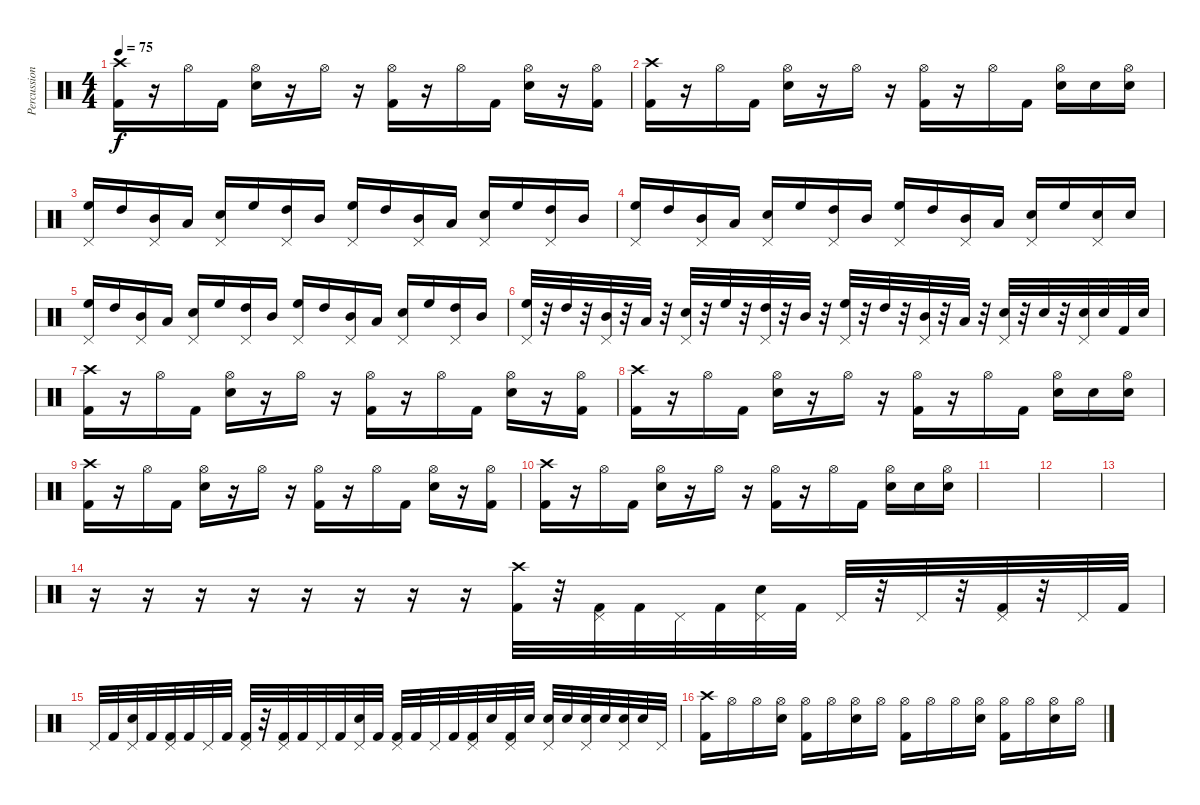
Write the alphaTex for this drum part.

\track ("Percussion" "Percussion") {instrument percussion}
\staff {score}
\articulation defaults
\ts (4 4)
\tempo 75
\clef neutral
\ks c
("Crash high (hit)" "Kick (hit) 2").16{dy f} r.16 "Hi-Hat (open)".16 "Kick (hit) 2".16 ("Hi-Hat (open)" "Snare (hit) 2").16 r.16 "Hi-Hat (open)".16 r.16 ("Hi-Hat (open)" "Kick (hit) 2").16 r.16 "Hi-Hat (open)".16 "Kick (hit) 2".16 ("Hi-Hat (open)" "Snare (hit) 2").16 r.16 ("Hi-Hat (open)" "Kick (hit) 2").16 |
("Crash high (hit)" "Kick (hit) 2").16 r.16 "Hi-Hat (open)".16 "Kick (hit) 2".16 ("Hi-Hat (open)" "Snare (hit) 2").16 r.16 "Hi-Hat (open)".16 r.16 ("Hi-Hat (open)" "Kick (hit) 2").16 r.16 "Hi-Hat (open)".16 "Kick (hit) 2".16 ("Hi-Hat (open)" "Snare (hit) 2").16 "Snare (hit) 2".16 ("Hi-Hat (open)" "Snare (hit) 2").16 |
("High Floor Tom (hit)" "Pedal Hi-Hat (hit)").16 "High Tom (hit)".16 ("Mid Tom (hit)" "Pedal Hi-Hat (hit)").16 "Low Tom (hit)".16 ("Snare (hit) 2" "Pedal Hi-Hat (hit)").16 "High Floor Tom (hit)".16 ("High Tom (hit)" "Pedal Hi-Hat (hit)").16 "Mid Tom (hit)".16 ("High Floor Tom (hit)" "Pedal Hi-Hat (hit)").16 "High Tom (hit)".16 ("Mid Tom (hit)" "Pedal Hi-Hat (hit)").16 "Low Tom (hit)".16 ("Snare (hit) 2" "Pedal Hi-Hat (hit)").16 "High Floor Tom (hit)".16 ("High Tom (hit)" "Pedal Hi-Hat (hit)").16 "Mid Tom (hit)".16 |
("High Floor Tom (hit)" "Pedal Hi-Hat (hit)").16 "High Tom (hit)".16 ("Mid Tom (hit)" "Pedal Hi-Hat (hit)").16 "Low Tom (hit)".16 ("Snare (hit) 2" "Pedal Hi-Hat (hit)").16 "High Floor Tom (hit)".16 ("High Tom (hit)" "Pedal Hi-Hat (hit)").16 "Mid Tom (hit)".16 ("High Floor Tom (hit)" "Pedal Hi-Hat (hit)").16 "High Tom (hit)".16 ("Mid Tom (hit)" "Pedal Hi-Hat (hit)").16 "Low Tom (hit)".16 ("Snare (hit) 2" "Pedal Hi-Hat (hit)").16 "High Floor Tom (hit)".16 ("Snare (hit) 2" "Pedal Hi-Hat (hit)").16 "Snare (hit) 2".16 |
("High Floor Tom (hit)" "Pedal Hi-Hat (hit)").16 "High Tom (hit)".16 ("Mid Tom (hit)" "Pedal Hi-Hat (hit)").16 "Low Tom (hit)".16 ("Snare (hit) 2" "Pedal Hi-Hat (hit)").16 "High Floor Tom (hit)".16 ("High Tom (hit)" "Pedal Hi-Hat (hit)").16 "Mid Tom (hit)".16 ("High Floor Tom (hit)" "Pedal Hi-Hat (hit)").16 "High Tom (hit)".16 ("Mid Tom (hit)" "Pedal Hi-Hat (hit)").16 "Low Tom (hit)".16 ("Snare (hit) 2" "Pedal Hi-Hat (hit)").16 "High Floor Tom (hit)".16 ("High Tom (hit)" "Pedal Hi-Hat (hit)").16 "Mid Tom (hit)".16 |
("High Floor Tom (hit)" "Pedal Hi-Hat (hit)").32 r.32 "High Tom (hit)".32 r.32 ("Mid Tom (hit)" "Pedal Hi-Hat (hit)").32 r.32 "Low Tom (hit)".32 r.32 ("Snare (hit) 2" "Pedal Hi-Hat (hit)").32 r.32 "High Floor Tom (hit)".32 r.32 ("High Tom (hit)" "Pedal Hi-Hat (hit)").32 r.32 "Mid Tom (hit)".32 r.32 ("High Floor Tom (hit)" "Pedal Hi-Hat (hit)").32 r.32 "High Tom (hit)".32 r.32 ("Mid Tom (hit)" "Pedal Hi-Hat (hit)").32 r.32 "Low Tom (hit)".32 r.32 ("Snare (hit) 2" "Pedal Hi-Hat (hit)").32 r.32 "Snare (hit) 2".32 r.32 ("Snare (hit) 2" "Pedal Hi-Hat (hit)").32 "Snare (hit) 2".32 "Kick (hit) 2".32 "Snare (hit) 2".32 |
("Crash high (hit)" "Kick (hit) 2").16 r.16 "Hi-Hat (open)".16 "Kick (hit) 2".16 ("Hi-Hat (open)" "Snare (hit) 2").16 r.16 "Hi-Hat (open)".16 r.16 ("Hi-Hat (open)" "Kick (hit) 2").16 r.16 "Hi-Hat (open)".16 "Kick (hit) 2".16 ("Hi-Hat (open)" "Snare (hit) 2").16 r.16 ("Hi-Hat (open)" "Kick (hit) 2").16 |
("Crash high (hit)" "Kick (hit) 2").16 r.16 "Hi-Hat (open)".16 "Kick (hit) 2".16 ("Hi-Hat (open)" "Snare (hit) 2").16 r.16 "Hi-Hat (open)".16 r.16 ("Hi-Hat (open)" "Kick (hit) 2").16 r.16 "Hi-Hat (open)".16 "Kick (hit) 2".16 ("Hi-Hat (open)" "Snare (hit) 2").16 "Snare (hit) 2".16 ("Hi-Hat (open)" "Snare (hit) 2").16 |
("Crash high (hit)" "Kick (hit) 2").16 r.16 "Hi-Hat (open)".16 "Kick (hit) 2".16 ("Hi-Hat (open)" "Snare (hit) 2").16 r.16 "Hi-Hat (open)".16 r.16 ("Hi-Hat (open)" "Kick (hit) 2").16 r.16 "Hi-Hat (open)".16 "Kick (hit) 2".16 ("Hi-Hat (open)" "Snare (hit) 2").16 r.16 ("Hi-Hat (open)" "Kick (hit) 2").16 |
("Crash high (hit)" "Kick (hit) 2").16 r.16 "Hi-Hat (open)".16 "Kick (hit) 2".16 ("Hi-Hat (open)" "Snare (hit) 2").16 r.16 "Hi-Hat (open)".16 r.16 ("Hi-Hat (open)" "Kick (hit) 2").16 r.16 "Hi-Hat (open)".16 "Kick (hit) 2".16 ("Hi-Hat (open)" "Snare (hit) 2").16 "Snare (hit) 2".16 ("Hi-Hat (open)" "Snare (hit) 2").16 |
|
|
|
r.16 r.16 r.16 r.16 r.16 r.16 r.16 r.16 ("Kick (hit) 2" "Crash high (hit)").32 r.32 ("Kick (hit) 2" "Pedal Hi-Hat (hit)").32 "Kick (hit) 2".32 "Pedal Hi-Hat (hit)".32 "Kick (hit) 2".32 ("Snare (hit) 2" "Pedal Hi-Hat (hit)").32 "Kick (hit) 2".32 "Pedal Hi-Hat (hit)".32 r.32 "Pedal Hi-Hat (hit)".32 r.32 ("Kick (hit) 2" "Pedal Hi-Hat (hit)").32 r.32 "Pedal Hi-Hat (hit)".32 "Kick (hit) 2".32 |
"Pedal Hi-Hat (hit)".32 "Kick (hit) 2".32 ("Snare (hit) 2" "Pedal Hi-Hat (hit)").32 "Kick (hit) 2".32 ("Kick (hit) 2" "Pedal Hi-Hat (hit)").32 "Kick (hit) 2".32 "Pedal Hi-Hat (hit)".32 "Kick (hit) 2".32 ("Kick (hit) 2" "Pedal Hi-Hat (hit)").32 r.32 ("Kick (hit) 2" "Pedal Hi-Hat (hit)").32 "Kick (hit) 2".32 "Pedal Hi-Hat (hit)".32 "Kick (hit) 2".32 ("Snare (hit) 2" "Pedal Hi-Hat (hit)").32 "Kick (hit) 2".32 ("Kick (hit) 2" "Pedal Hi-Hat (hit)").32 "Kick (hit) 2".32 "Pedal Hi-Hat (hit)".32 "Kick (hit) 2".32 ("Kick (hit) 2" "Pedal Hi-Hat (hit)").32 "Snare (hit) 2".32 ("Kick (hit) 2" "Pedal Hi-Hat (hit)").32 "Snare (hit) 2".32 ("Snare (hit) 2" "Pedal Hi-Hat (hit)").32 "Snare (hit) 2".32 ("Snare (hit) 2" "Pedal Hi-Hat (hit)").32 "Snare (hit) 2".32 ("Snare (hit) 2" "Pedal Hi-Hat (hit)").32 "Snare (hit) 2".32 "Pedal Hi-Hat (hit)".32 |
("Crash high (hit)" "Kick (hit) 2").16 "Hi-Hat (open)".16 "Hi-Hat (open)".16 ("Hi-Hat (open)" "Snare (hit) 2").16 ("Hi-Hat (open)" "Kick (hit) 2").16 "Hi-Hat (open)".16 ("Hi-Hat (open)" "Snare (hit) 2").16 "Hi-Hat (open)".16 ("Hi-Hat (open)" "Kick (hit) 2").16 "Hi-Hat (open)".16 "Hi-Hat (open)".16 ("Hi-Hat (open)" "Snare (hit) 2").16 ("Hi-Hat (open)" "Kick (hit) 2").16 "Hi-Hat (open)".16 ("Hi-Hat (open)" "Snare (hit) 2").16 "Hi-Hat (open)".16
